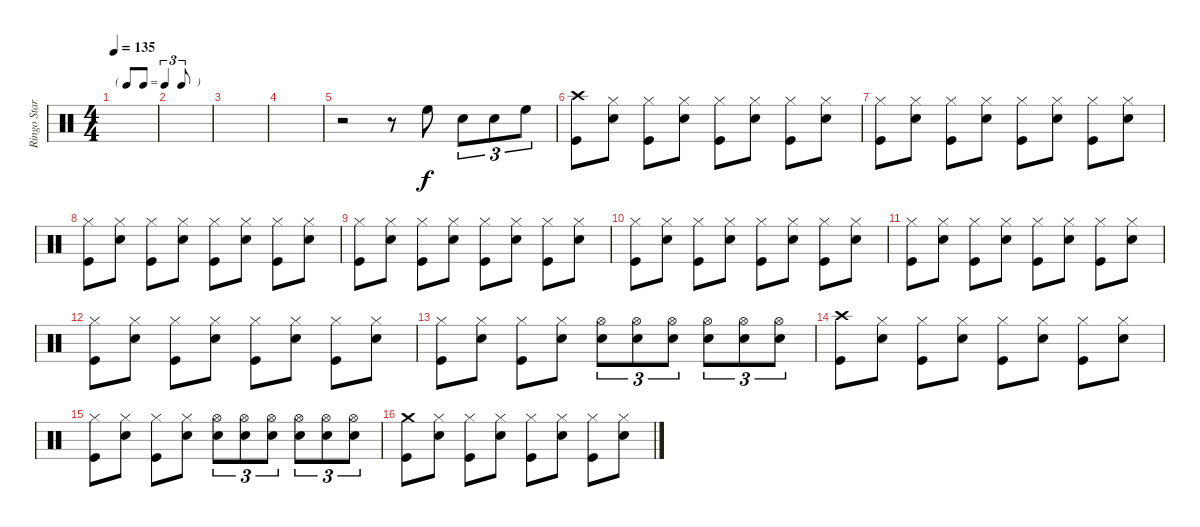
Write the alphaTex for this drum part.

\track ("Ringo Star" "Ringo Star") {instrument percussion}
\staff {score}
\articulation defaults
\ts (4 4)
\tf triplet8th
\tempo 135
\clef neutral
\ks c
|
|
|
|
r.2 r.8 "High Floor Tom (hit)".8 "Snare (hit) 2".8{tu (3 2)} "Snare (hit) 2".8{tu (3 2)} "High Floor Tom (hit)".8{tu (3 2)} |
("Crash high (hit)" "Kick (hit)").8 ("Hi-Hat (closed)" "Snare (hit) 2").8 ("Hi-Hat (closed)" "Kick (hit)").8 ("Hi-Hat (closed)" "Snare (hit) 2").8 ("Hi-Hat (closed)" "Kick (hit)").8 ("Hi-Hat (closed)" "Snare (hit) 2").8 ("Hi-Hat (closed)" "Kick (hit)").8 ("Hi-Hat (closed)" "Snare (hit) 2").8 |
("Hi-Hat (closed)" "Kick (hit)").8 ("Hi-Hat (closed)" "Snare (hit) 2").8 ("Hi-Hat (closed)" "Kick (hit)").8 ("Hi-Hat (closed)" "Snare (hit) 2").8 ("Hi-Hat (closed)" "Kick (hit)").8 ("Hi-Hat (closed)" "Snare (hit) 2").8 ("Hi-Hat (closed)" "Kick (hit)").8 ("Hi-Hat (closed)" "Snare (hit) 2").8 |
("Hi-Hat (closed)" "Kick (hit)").8 ("Hi-Hat (closed)" "Snare (hit) 2").8 ("Hi-Hat (closed)" "Kick (hit)").8 ("Hi-Hat (closed)" "Snare (hit) 2").8 ("Hi-Hat (closed)" "Kick (hit)").8 ("Hi-Hat (closed)" "Snare (hit) 2").8 ("Hi-Hat (closed)" "Kick (hit)").8 ("Hi-Hat (closed)" "Snare (hit) 2").8 |
("Hi-Hat (closed)" "Kick (hit)").8 ("Hi-Hat (closed)" "Snare (hit) 2").8 ("Hi-Hat (closed)" "Kick (hit)").8 ("Hi-Hat (closed)" "Snare (hit) 2").8 ("Hi-Hat (closed)" "Kick (hit)").8 ("Hi-Hat (closed)" "Snare (hit) 2").8 ("Hi-Hat (closed)" "Kick (hit)").8 ("Hi-Hat (closed)" "Snare (hit) 2").8 |
("Hi-Hat (closed)" "Kick (hit)").8 ("Hi-Hat (closed)" "Snare (hit) 2").8 ("Hi-Hat (closed)" "Kick (hit)").8 ("Hi-Hat (closed)" "Snare (hit) 2").8 ("Hi-Hat (closed)" "Kick (hit)").8 ("Hi-Hat (closed)" "Snare (hit) 2").8 ("Hi-Hat (closed)" "Kick (hit)").8 ("Hi-Hat (closed)" "Snare (hit) 2").8 |
("Hi-Hat (closed)" "Kick (hit)").8 ("Hi-Hat (closed)" "Snare (hit) 2").8 ("Hi-Hat (closed)" "Kick (hit)").8 ("Hi-Hat (closed)" "Snare (hit) 2").8 ("Hi-Hat (closed)" "Kick (hit)").8 ("Hi-Hat (closed)" "Snare (hit) 2").8 ("Hi-Hat (closed)" "Kick (hit)").8 ("Hi-Hat (closed)" "Snare (hit) 2").8 |
("Hi-Hat (closed)" "Kick (hit)").8 ("Hi-Hat (closed)" "Snare (hit) 2").8 ("Hi-Hat (closed)" "Kick (hit)").8 ("Hi-Hat (closed)" "Snare (hit) 2").8 ("Hi-Hat (closed)" "Kick (hit)").8 ("Hi-Hat (closed)" "Snare (hit) 2").8 ("Hi-Hat (closed)" "Kick (hit)").8 ("Hi-Hat (closed)" "Snare (hit) 2").8 |
("Hi-Hat (closed)" "Kick (hit)").8 ("Hi-Hat (closed)" "Snare (hit) 2").8 ("Hi-Hat (closed)" "Kick (hit)").8 ("Hi-Hat (closed)" "Snare (hit) 2").8 ("Hi-Hat (open)" "Snare (hit) 2").8{tu (3 2)} ("Hi-Hat (open)" "Snare (hit) 2").8{tu (3 2)} ("Hi-Hat (open)" "Snare (hit) 2").8{tu (3 2)} ("Hi-Hat (open)" "Snare (hit) 2").8{tu (3 2)} ("Hi-Hat (open)" "Snare (hit) 2").8{tu (3 2)} ("Hi-Hat (open)" "Snare (hit) 2").8{tu (3 2)} |
("Crash high (hit)" "Kick (hit)").8 ("Hi-Hat (closed)" "Snare (hit) 2").8 ("Hi-Hat (closed)" "Kick (hit)").8 ("Hi-Hat (closed)" "Snare (hit) 2").8 ("Hi-Hat (closed)" "Kick (hit)").8 ("Hi-Hat (closed)" "Snare (hit) 2").8 ("Hi-Hat (closed)" "Kick (hit)").8 ("Hi-Hat (closed)" "Snare (hit) 2").8 |
("Hi-Hat (closed)" "Kick (hit)").8 ("Hi-Hat (closed)" "Snare (hit) 2").8 ("Hi-Hat (closed)" "Kick (hit)").8 ("Hi-Hat (closed)" "Snare (hit) 2").8 ("Hi-Hat (open)" "Snare (hit) 2").8{tu (3 2)} ("Hi-Hat (open)" "Snare (hit) 2").8{tu (3 2)} ("Hi-Hat (open)" "Snare (hit) 2").8{tu (3 2)} ("Hi-Hat (open)" "Snare (hit) 2").8{tu (3 2)} ("Hi-Hat (open)" "Snare (hit) 2").8{tu (3 2)} ("Hi-Hat (open)" "Snare (hit) 2").8{tu (3 2)} |
("Crash medium (hit)" "Kick (hit)").8 ("Hi-Hat (closed)" "Snare (hit) 2").8 ("Hi-Hat (closed)" "Kick (hit)").8 ("Hi-Hat (closed)" "Snare (hit) 2").8 ("Hi-Hat (closed)" "Kick (hit)").8 ("Hi-Hat (closed)" "Snare (hit) 2").8 ("Hi-Hat (closed)" "Kick (hit)").8 ("Hi-Hat (closed)" "Snare (hit) 2").8
